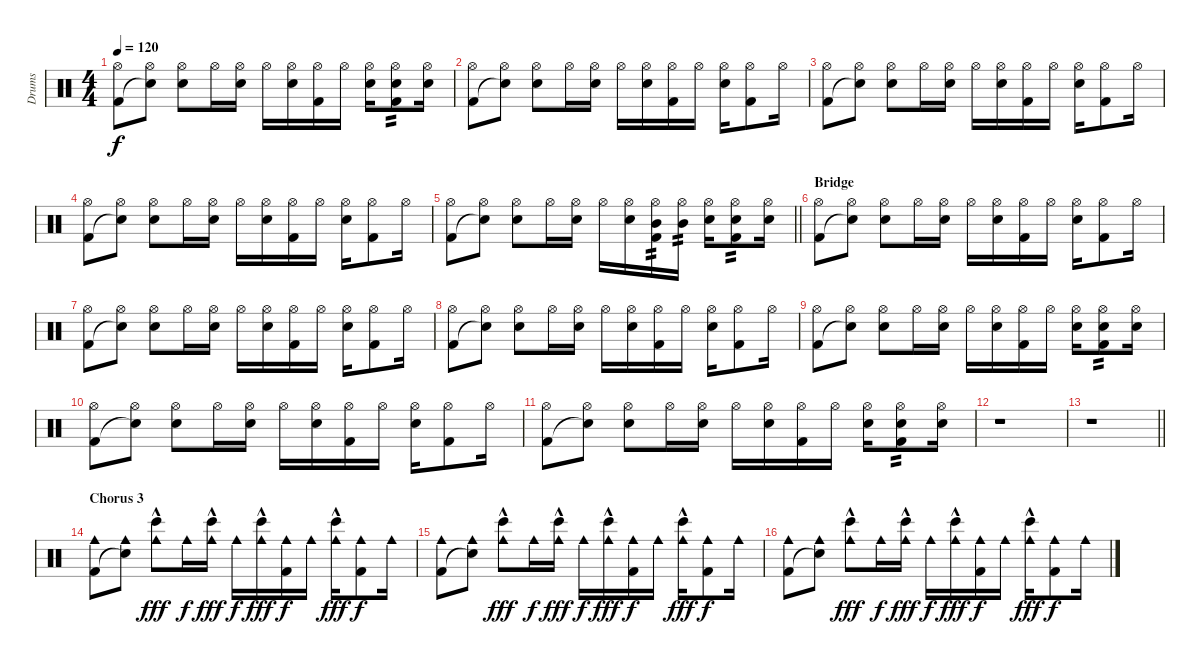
\track ("Drums" "Drums") {instrument percussion}
\staff {score}
\articulation defaults
\ts (4 4)
\tempo 120
\clef neutral
\ks c
("Hi-Hat (open)" "Kick (hit) 2").8{dy f} ("Hi-Hat (open)" "Snare (hit)"{t}).8 ("Hi-Hat (open)" "Electric Snare (hit)").8 "Hi-Hat (open)".16 ("Hi-Hat (open)" "Electric Snare (hit)").16 "Hi-Hat (open)".16 ("Hi-Hat (open)" "Electric Snare (hit)").16 ("Hi-Hat (open)" "Kick (hit) 2").16 "Hi-Hat (open)".16 ("Hi-Hat (open)" "Electric Snare (hit)").16 ("Hi-Hat (open)" "Electric Snare (hit)" "Kick (hit) 2").8{tp 2} ("Hi-Hat (open)" "Electric Snare (hit)").16 |
("Hi-Hat (open)" "Kick (hit) 2").8 ("Hi-Hat (open)" "Snare (hit)"{t}).8 ("Hi-Hat (open)" "Electric Snare (hit)").8 "Hi-Hat (open)".16 ("Hi-Hat (open)" "Electric Snare (hit)").16 "Hi-Hat (open)".16 ("Hi-Hat (open)" "Electric Snare (hit)").16 ("Hi-Hat (open)" "Kick (hit) 2").16 "Hi-Hat (open)".16 ("Hi-Hat (open)" "Electric Snare (hit)").16 ("Hi-Hat (open)" "Kick (hit) 2").8 "Hi-Hat (open)".16 |
("Hi-Hat (open)" "Kick (hit) 2").8 ("Hi-Hat (open)" "Snare (hit)"{t}).8 ("Hi-Hat (open)" "Electric Snare (hit)").8 "Hi-Hat (open)".16 ("Hi-Hat (open)" "Electric Snare (hit)").16 "Hi-Hat (open)".16 ("Hi-Hat (open)" "Electric Snare (hit)").16 ("Hi-Hat (open)" "Kick (hit) 2").16 "Hi-Hat (open)".16 ("Hi-Hat (open)" "Electric Snare (hit)").16 ("Hi-Hat (open)" "Kick (hit) 2").8 "Hi-Hat (open)".16 |
("Hi-Hat (open)" "Kick (hit) 2").8 ("Hi-Hat (open)" "Snare (hit)"{t}).8 ("Hi-Hat (open)" "Electric Snare (hit)").8 "Hi-Hat (open)".16 ("Hi-Hat (open)" "Electric Snare (hit)").16 "Hi-Hat (open)".16 ("Hi-Hat (open)" "Electric Snare (hit)").16 ("Hi-Hat (open)" "Kick (hit) 2").16 "Hi-Hat (open)".16 ("Hi-Hat (open)" "Electric Snare (hit)").16 ("Hi-Hat (open)" "Kick (hit) 2").8 "Hi-Hat (open)".16 |
\barLineRight lightlight
("Hi-Hat (open)" "Kick (hit) 2").8 ("Hi-Hat (open)" "Snare (hit)"{t}).8 ("Hi-Hat (open)" "Electric Snare (hit)").8 "Hi-Hat (open)".16 ("Hi-Hat (open)" "Electric Snare (hit)").16 "Hi-Hat (open)".16 ("Hi-Hat (open)" "Electric Snare (hit)").16 ("Hi-Hat (open)" "Mid Tom (hit)" "Kick (hit) 2").16{tp 2} ("Hi-Hat (open)" "Mid Tom (hit)").16{tp 2} ("Hi-Hat (open)" "Electric Snare (hit)").16 ("Hi-Hat (open)" "Electric Snare (hit)" "Kick (hit) 2").8{tp 2} ("Hi-Hat (open)" "Electric Snare (hit)").16 |
\section ("" "Bridge")
("Hi-Hat (open)" "Kick (hit) 2").8 ("Hi-Hat (open)" "Snare (hit)"{t}).8 ("Hi-Hat (open)" "Electric Snare (hit)").8 "Hi-Hat (open)".16 ("Hi-Hat (open)" "Electric Snare (hit)").16 "Hi-Hat (open)".16 ("Hi-Hat (open)" "Electric Snare (hit)").16 ("Hi-Hat (open)" "Kick (hit) 2").16 "Hi-Hat (open)".16 ("Hi-Hat (open)" "Electric Snare (hit)").16 ("Hi-Hat (open)" "Kick (hit) 2").8 "Hi-Hat (open)".16 |
("Hi-Hat (open)" "Kick (hit) 2").8 ("Hi-Hat (open)" "Snare (hit)"{t}).8 ("Hi-Hat (open)" "Electric Snare (hit)").8 "Hi-Hat (open)".16 ("Hi-Hat (open)" "Electric Snare (hit)").16 "Hi-Hat (open)".16 ("Hi-Hat (open)" "Electric Snare (hit)").16 ("Hi-Hat (open)" "Kick (hit) 2").16 "Hi-Hat (open)".16 ("Hi-Hat (open)" "Electric Snare (hit)").16 ("Hi-Hat (open)" "Kick (hit) 2").8 "Hi-Hat (open)".16 |
("Hi-Hat (open)" "Kick (hit) 2").8 ("Hi-Hat (open)" "Snare (hit)"{t}).8 ("Hi-Hat (open)" "Electric Snare (hit)").8 "Hi-Hat (open)".16 ("Hi-Hat (open)" "Electric Snare (hit)").16 "Hi-Hat (open)".16 ("Hi-Hat (open)" "Electric Snare (hit)").16 ("Hi-Hat (open)" "Kick (hit) 2").16 "Hi-Hat (open)".16 ("Hi-Hat (open)" "Electric Snare (hit)").16 ("Hi-Hat (open)" "Kick (hit) 2").8 "Hi-Hat (open)".16 |
("Hi-Hat (open)" "Kick (hit) 2").8 ("Hi-Hat (open)" "Snare (hit)"{t}).8 ("Hi-Hat (open)" "Electric Snare (hit)").8 "Hi-Hat (open)".16 ("Hi-Hat (open)" "Electric Snare (hit)").16 "Hi-Hat (open)".16 ("Hi-Hat (open)" "Electric Snare (hit)").16 ("Hi-Hat (open)" "Kick (hit) 2").16 "Hi-Hat (open)".16 ("Hi-Hat (open)" "Electric Snare (hit)").16 ("Hi-Hat (open)" "Electric Snare (hit)" "Kick (hit) 2").8{tp 2} ("Hi-Hat (open)" "Electric Snare (hit)").16 |
("Hi-Hat (open)" "Kick (hit) 2").8 ("Hi-Hat (open)" "Snare (hit)"{t}).8 ("Hi-Hat (open)" "Electric Snare (hit)").8 "Hi-Hat (open)".16 ("Hi-Hat (open)" "Electric Snare (hit)").16 "Hi-Hat (open)".16 ("Hi-Hat (open)" "Electric Snare (hit)").16 ("Hi-Hat (open)" "Kick (hit) 2").16 "Hi-Hat (open)".16 ("Hi-Hat (open)" "Electric Snare (hit)").16 ("Hi-Hat (open)" "Kick (hit) 2").8 "Hi-Hat (open)".16 |
("Hi-Hat (open)" "Kick (hit) 2").8 ("Hi-Hat (open)" "Snare (hit)"{t}).8 ("Hi-Hat (open)" "Electric Snare (hit)").8 "Hi-Hat (open)".16 ("Hi-Hat (open)" "Electric Snare (hit)").16 "Hi-Hat (open)".16 ("Hi-Hat (open)" "Electric Snare (hit)").16 ("Hi-Hat (open)" "Kick (hit) 2").16 "Hi-Hat (open)".16 ("Hi-Hat (open)" "Electric Snare (hit)").16 ("Hi-Hat (open)" "Electric Snare (hit)" "Kick (hit) 2").8{tp 2} ("Hi-Hat (open)" "Electric Snare (hit)").16 |
r.1 |
\barLineRight lightlight
r.1 |
\section ("" "Chorus 3")
("Cowbell medium (hit)" "Kick (hit) 2").8 ("Cowbell medium (hit)" "Snare (hit)"{t}).8 ("Cowbell medium (hit)" "Bongo High (hit)"{hac}).8{dy fff} "Cowbell medium (hit)".16{dy f} ("Cowbell medium (hit)" "Bongo High (hit)"{hac}).16{dy fff} "Cowbell medium (hit)".16{dy f} ("Cowbell medium (hit)" "Bongo High (hit)"{hac}).16{dy fff} ("Cowbell medium (hit)" "Kick (hit) 2").16{dy f} "Cowbell medium (hit)".16 ("Cowbell medium (hit)" "Bongo High (hit)"{hac}).16{dy fff} ("Cowbell medium (hit)" "Kick (hit) 2").8{dy f} "Cowbell medium (hit)".16 |
("Cowbell medium (hit)" "Kick (hit) 2").8 ("Cowbell medium (hit)" "Snare (hit)"{t}).8 ("Cowbell medium (hit)" "Bongo High (hit)"{hac}).8{dy fff} "Cowbell medium (hit)".16{dy f} ("Cowbell medium (hit)" "Bongo High (hit)"{hac}).16{dy fff} "Cowbell medium (hit)".16{dy f} ("Cowbell medium (hit)" "Bongo High (hit)"{hac}).16{dy fff} ("Cowbell medium (hit)" "Kick (hit) 2").16{dy f} "Cowbell medium (hit)".16 ("Cowbell medium (hit)" "Bongo High (hit)"{hac}).16{dy fff} ("Cowbell medium (hit)" "Kick (hit) 2").8{dy f} "Cowbell medium (hit)".16 |
("Cowbell medium (hit)" "Kick (hit) 2").8 ("Cowbell medium (hit)" "Snare (hit)"{t}).8 ("Cowbell medium (hit)" "Bongo High (hit)"{hac}).8{dy fff} "Cowbell medium (hit)".16{dy f} ("Cowbell medium (hit)" "Bongo High (hit)"{hac}).16{dy fff} "Cowbell medium (hit)".16{dy f} ("Cowbell medium (hit)" "Bongo High (hit)"{hac}).16{dy fff} ("Cowbell medium (hit)" "Kick (hit) 2").16{dy f} "Cowbell medium (hit)".16 ("Cowbell medium (hit)" "Bongo High (hit)"{hac}).16{dy fff} ("Cowbell medium (hit)" "Kick (hit) 2").8{dy f} "Cowbell medium (hit)".16
